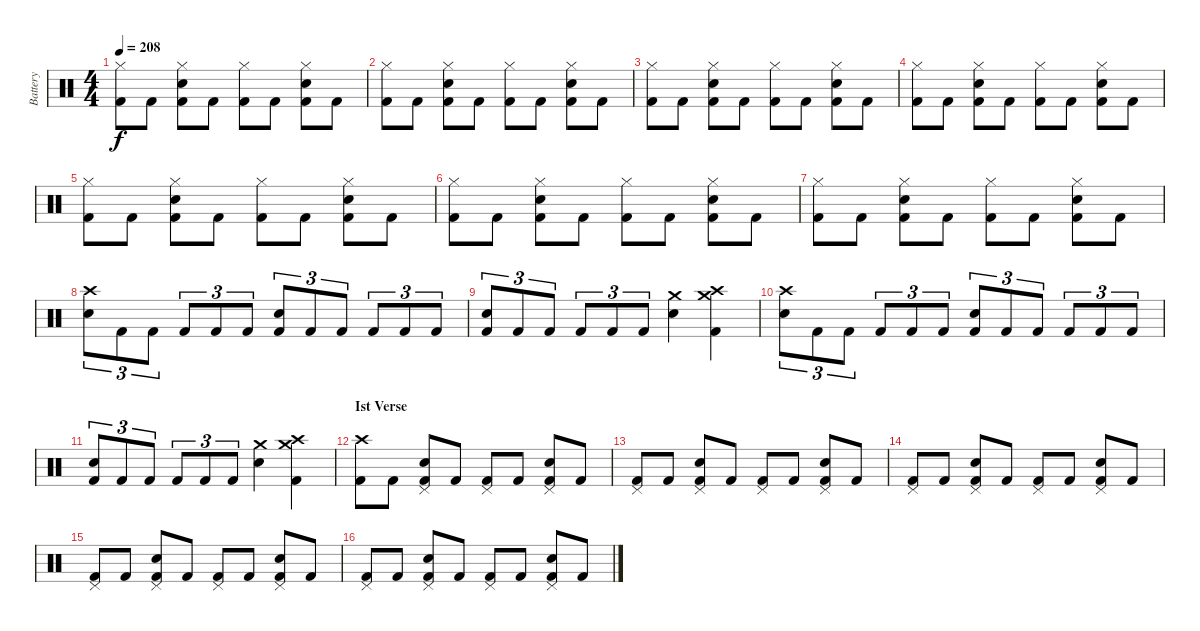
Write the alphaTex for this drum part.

\track ("Battery" "Battery") {instrument percussion}
\staff {score}
\articulation defaults
\ts (4 4)
\tempo 208
\clef neutral
\ks c
("Hi-Hat (closed)" "Kick (hit) 2").8{dy f} "Kick (hit) 2".8 ("Hi-Hat (closed)" "Electric Snare (hit)" "Kick (hit) 2").8 "Kick (hit) 2".8 ("Hi-Hat (closed)" "Kick (hit) 2").8 "Kick (hit) 2".8 ("Hi-Hat (closed)" "Electric Snare (hit)" "Kick (hit) 2").8 "Kick (hit) 2".8 |
("Hi-Hat (closed)" "Kick (hit) 2").8 "Kick (hit) 2".8 ("Hi-Hat (closed)" "Electric Snare (hit)" "Kick (hit) 2").8 "Kick (hit) 2".8 ("Hi-Hat (closed)" "Kick (hit) 2").8 "Kick (hit) 2".8 ("Hi-Hat (closed)" "Electric Snare (hit)" "Kick (hit) 2").8 "Kick (hit) 2".8 |
("Hi-Hat (closed)" "Kick (hit) 2").8 "Kick (hit) 2".8 ("Hi-Hat (closed)" "Electric Snare (hit)" "Kick (hit) 2").8 "Kick (hit) 2".8 ("Hi-Hat (closed)" "Kick (hit) 2").8 "Kick (hit) 2".8 ("Hi-Hat (closed)" "Electric Snare (hit)" "Kick (hit) 2").8 "Kick (hit) 2".8 |
("Hi-Hat (closed)" "Kick (hit) 2").8 "Kick (hit) 2".8 ("Hi-Hat (closed)" "Electric Snare (hit)" "Kick (hit) 2").8 "Kick (hit) 2".8 ("Hi-Hat (closed)" "Kick (hit) 2").8 "Kick (hit) 2".8 ("Hi-Hat (closed)" "Electric Snare (hit)" "Kick (hit) 2").8 "Kick (hit) 2".8 |
("Hi-Hat (closed)" "Kick (hit) 2").8 "Kick (hit) 2".8 ("Hi-Hat (closed)" "Electric Snare (hit)" "Kick (hit) 2").8 "Kick (hit) 2".8 ("Hi-Hat (closed)" "Kick (hit) 2").8 "Kick (hit) 2".8 ("Hi-Hat (closed)" "Electric Snare (hit)" "Kick (hit) 2").8 "Kick (hit) 2".8 |
("Hi-Hat (closed)" "Kick (hit) 2").8 "Kick (hit) 2".8 ("Hi-Hat (closed)" "Electric Snare (hit)" "Kick (hit) 2").8 "Kick (hit) 2".8 ("Hi-Hat (closed)" "Kick (hit) 2").8 "Kick (hit) 2".8 ("Hi-Hat (closed)" "Electric Snare (hit)" "Kick (hit) 2").8 "Kick (hit) 2".8 |
("Hi-Hat (closed)" "Kick (hit) 2").8 "Kick (hit) 2".8 ("Hi-Hat (closed)" "Electric Snare (hit)" "Kick (hit) 2").8 "Kick (hit) 2".8 ("Hi-Hat (closed)" "Kick (hit) 2").8 "Kick (hit) 2".8 ("Hi-Hat (closed)" "Electric Snare (hit)" "Kick (hit) 2").8 "Kick (hit) 2".8 |
("Crash high (hit)" "Electric Snare (hit)").8{tu (3 2)} "Kick (hit) 2".8{tu (3 2)} "Kick (hit) 2".8{tu (3 2)} "Kick (hit) 2".8{tu (3 2)} "Kick (hit) 2".8{tu (3 2)} "Kick (hit) 2".8{tu (3 2)} ("Electric Snare (hit)" "Kick (hit) 2").8{tu (3 2)} "Kick (hit) 2".8{tu (3 2)} "Kick (hit) 2".8{tu (3 2)} "Kick (hit) 2".8{tu (3 2)} "Kick (hit) 2".8{tu (3 2)} "Kick (hit) 2".8{tu (3 2)} |
("Electric Snare (hit)" "Kick (hit) 2").8{tu (3 2)} "Kick (hit) 2".8{tu (3 2)} "Kick (hit) 2".8{tu (3 2)} "Kick (hit) 2".8{tu (3 2)} "Kick (hit) 2".8{tu (3 2)} "Kick (hit) 2".8{tu (3 2)} ("Crash medium (hit)" "Electric Snare (hit)").4 ("Crash high (hit)" "Crash medium (hit)" "Kick (hit) 2").4 |
("Crash high (hit)" "Electric Snare (hit)").8{tu (3 2)} "Kick (hit) 2".8{tu (3 2)} "Kick (hit) 2".8{tu (3 2)} "Kick (hit) 2".8{tu (3 2)} "Kick (hit) 2".8{tu (3 2)} "Kick (hit) 2".8{tu (3 2)} ("Electric Snare (hit)" "Kick (hit) 2").8{tu (3 2)} "Kick (hit) 2".8{tu (3 2)} "Kick (hit) 2".8{tu (3 2)} "Kick (hit) 2".8{tu (3 2)} "Kick (hit) 2".8{tu (3 2)} "Kick (hit) 2".8{tu (3 2)} |
("Electric Snare (hit)" "Kick (hit) 2").8{tu (3 2)} "Kick (hit) 2".8{tu (3 2)} "Kick (hit) 2".8{tu (3 2)} "Kick (hit) 2".8{tu (3 2)} "Kick (hit) 2".8{tu (3 2)} "Kick (hit) 2".8{tu (3 2)} ("Crash medium (hit)" "Electric Snare (hit)").4 ("Crash high (hit)" "Crash medium (hit)" "Kick (hit) 2").4 |
\section ("" "Ist Verse")
("Crash high (hit)" "Kick (hit) 2").8 "Kick (hit) 2".8 ("Pedal Hi-Hat (hit)" "Electric Snare (hit)" "Kick (hit) 2").8 "Kick (hit) 2".8 ("Pedal Hi-Hat (hit)" "Kick (hit) 2").8 "Kick (hit) 2".8 ("Pedal Hi-Hat (hit)" "Electric Snare (hit)" "Kick (hit) 2").8 "Kick (hit) 2".8 |
("Pedal Hi-Hat (hit)" "Kick (hit) 2").8 "Kick (hit) 2".8 ("Pedal Hi-Hat (hit)" "Electric Snare (hit)" "Kick (hit) 2").8 "Kick (hit) 2".8 ("Pedal Hi-Hat (hit)" "Kick (hit) 2").8 "Kick (hit) 2".8 ("Pedal Hi-Hat (hit)" "Electric Snare (hit)" "Kick (hit) 2").8 "Kick (hit) 2".8 |
("Pedal Hi-Hat (hit)" "Kick (hit) 2").8 "Kick (hit) 2".8 ("Pedal Hi-Hat (hit)" "Electric Snare (hit)" "Kick (hit) 2").8 "Kick (hit) 2".8 ("Pedal Hi-Hat (hit)" "Kick (hit) 2").8 "Kick (hit) 2".8 ("Pedal Hi-Hat (hit)" "Electric Snare (hit)" "Kick (hit) 2").8 "Kick (hit) 2".8 |
("Pedal Hi-Hat (hit)" "Kick (hit) 2").8 "Kick (hit) 2".8 ("Pedal Hi-Hat (hit)" "Electric Snare (hit)" "Kick (hit) 2").8 "Kick (hit) 2".8 ("Pedal Hi-Hat (hit)" "Kick (hit) 2").8 "Kick (hit) 2".8 ("Pedal Hi-Hat (hit)" "Electric Snare (hit)" "Kick (hit) 2").8 "Kick (hit) 2".8 |
("Pedal Hi-Hat (hit)" "Kick (hit) 2").8 "Kick (hit) 2".8 ("Pedal Hi-Hat (hit)" "Electric Snare (hit)" "Kick (hit) 2").8 "Kick (hit) 2".8 ("Pedal Hi-Hat (hit)" "Kick (hit) 2").8 "Kick (hit) 2".8 ("Pedal Hi-Hat (hit)" "Electric Snare (hit)" "Kick (hit) 2").8 "Kick (hit) 2".8
